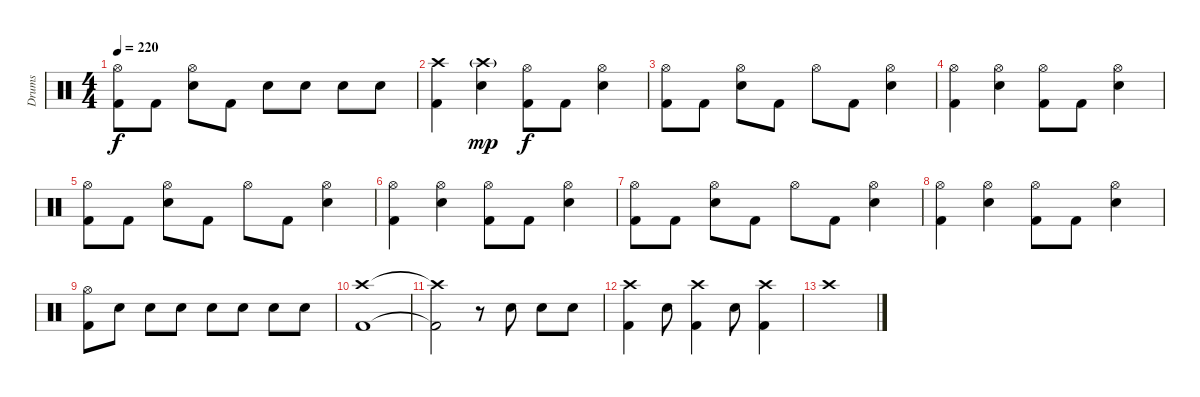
\track ("Drums" "Drums") {instrument percussion}
\staff {score}
\articulation defaults
\ts (4 4)
\tempo 220
\clef neutral
\ks c
("Hi-Hat (open)" "Kick (hit) 2").8{dy f} "Kick (hit) 2".8 ("Hi-Hat (open)" "Snare (hit) 2").8 "Kick (hit) 2".8 "Snare (hit) 2".8 "Snare (hit) 2".8 "Snare (hit) 2".8 "Snare (hit) 2".8 |
("Crash high (hit)" "Kick (hit) 2").4 ("Crash high (hit)"{g} "Snare (hit) 2").4{dy mp} ("Hi-Hat (open)" "Kick (hit) 2").8{dy f} "Kick (hit) 2".8 ("Hi-Hat (open)" "Snare (hit) 2").4 |
("Hi-Hat (open)" "Kick (hit) 2").8 "Kick (hit) 2".8 ("Hi-Hat (open)" "Snare (hit) 2").8 "Kick (hit) 2".8 "Hi-Hat (open)".8 "Kick (hit) 2".8 ("Hi-Hat (open)" "Snare (hit) 2").4 |
("Hi-Hat (open)" "Kick (hit) 2").4 ("Hi-Hat (open)" "Snare (hit) 2").4 ("Hi-Hat (open)" "Kick (hit) 2").8 "Kick (hit) 2".8 ("Hi-Hat (open)" "Snare (hit) 2").4 |
("Hi-Hat (open)" "Kick (hit) 2").8 "Kick (hit) 2".8 ("Hi-Hat (open)" "Snare (hit) 2").8 "Kick (hit) 2".8 "Hi-Hat (open)".8 "Kick (hit) 2".8 ("Hi-Hat (open)" "Snare (hit) 2").4 |
("Hi-Hat (open)" "Kick (hit) 2").4 ("Hi-Hat (open)" "Snare (hit) 2").4 ("Hi-Hat (open)" "Kick (hit) 2").8 "Kick (hit) 2".8 ("Hi-Hat (open)" "Snare (hit) 2").4 |
("Hi-Hat (open)" "Kick (hit) 2").8 "Kick (hit) 2".8 ("Hi-Hat (open)" "Snare (hit) 2").8 "Kick (hit) 2".8 "Hi-Hat (open)".8 "Kick (hit) 2".8 ("Hi-Hat (open)" "Snare (hit) 2").4 |
("Hi-Hat (open)" "Kick (hit) 2").4 ("Hi-Hat (open)" "Snare (hit) 2").4 ("Hi-Hat (open)" "Kick (hit) 2").8 "Kick (hit) 2".8 ("Hi-Hat (open)" "Snare (hit) 2").4 |
("Hi-Hat (open)" "Kick (hit) 2").8 "Snare (hit) 2".8 "Snare (hit) 2".8 "Snare (hit) 2".8 "Snare (hit) 2".8 "Snare (hit) 2".8 "Snare (hit) 2".8 "Snare (hit) 2".8 |
("Crash high (hit)" "Kick (hit) 2").1 |
("Crash high (hit)"{t} "Kick (hit) 2"{t}).2 r.8 "Snare (hit) 2".8 "Snare (hit) 2".8 "Snare (hit) 2".8 |
("Crash high (hit)" "Kick (hit) 2").4 "Snare (hit) 2".8 ("Crash high (hit)" "Kick (hit) 2").4 "Snare (hit) 2".8 ("Crash high (hit)" "Kick (hit) 2").4 |
"Crash high (hit)".1
